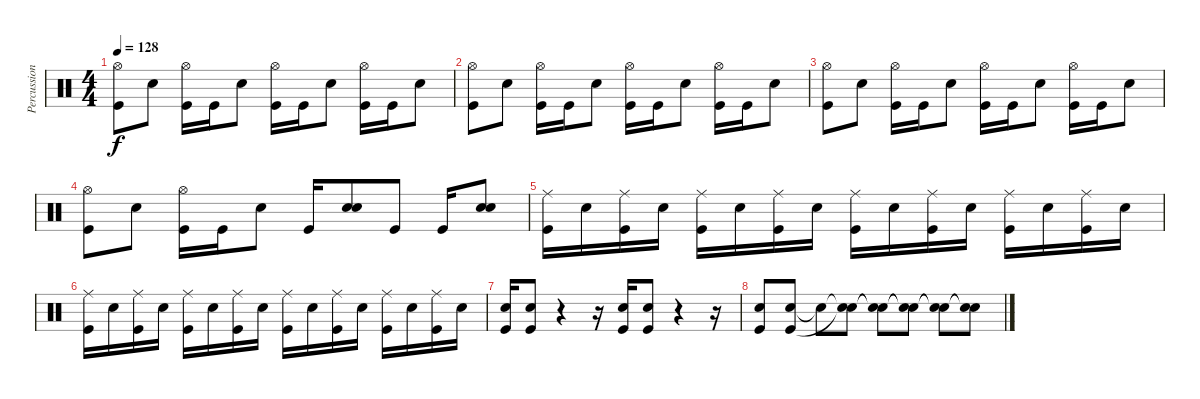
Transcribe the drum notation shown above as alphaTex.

\track ("Percussion" "Percussion") {instrument percussion}
\staff {score}
\articulation defaults
\ts (4 4)
\tempo 128
\clef neutral
\ks c
("Hi-Hat (open)" "Kick (hit)").8{dy f} "Electric Snare (hit)".8 ("Hi-Hat (open)" "Kick (hit)").16 "Kick (hit)".16 "Electric Snare (hit)".8 ("Hi-Hat (open)" "Kick (hit)").16 "Kick (hit)".16 "Electric Snare (hit)".8 ("Hi-Hat (open)" "Kick (hit)").16 "Kick (hit)".16 "Electric Snare (hit)".8 |
("Hi-Hat (open)" "Kick (hit)").8 "Electric Snare (hit)".8 ("Hi-Hat (open)" "Kick (hit)").16 "Kick (hit)".16 "Electric Snare (hit)".8 ("Hi-Hat (open)" "Kick (hit)").16 "Kick (hit)".16 "Electric Snare (hit)".8 ("Hi-Hat (open)" "Kick (hit)").16 "Kick (hit)".16 "Electric Snare (hit)".8 |
("Hi-Hat (open)" "Kick (hit)").8 "Electric Snare (hit)".8 ("Hi-Hat (open)" "Kick (hit)").16 "Kick (hit)".16 "Electric Snare (hit)".8 ("Hi-Hat (open)" "Kick (hit)").16 "Kick (hit)".16 "Electric Snare (hit)".8 ("Hi-Hat (open)" "Kick (hit)").16 "Kick (hit)".16 "Electric Snare (hit)".8 |
("Hi-Hat (open)" "Kick (hit)").8 "Electric Snare (hit)".8 ("Hi-Hat (open)" "Kick (hit)").16 "Kick (hit)".16 "Electric Snare (hit)".8 "Kick (hit)".16 ("Electric Snare (hit)" "Electric Snare (hit)").8 "Kick (hit)".8 "Kick (hit)".16 ("Electric Snare (hit)" "Electric Snare (hit)").8 |
("Ride (middle)" "Kick (hit)").16 "Electric Snare (hit)".16 ("Ride (middle)" "Kick (hit)").16 "Electric Snare (hit)".16 ("Ride (middle)" "Kick (hit)").16 "Electric Snare (hit)".16 ("Ride (middle)" "Kick (hit)").16 "Electric Snare (hit)".16 ("Ride (middle)" "Kick (hit)").16 "Electric Snare (hit)".16 ("Ride (middle)" "Kick (hit)").16 "Electric Snare (hit)".16 ("Ride (middle)" "Kick (hit)").16 "Electric Snare (hit)".16 ("Ride (middle)" "Kick (hit)").16 "Electric Snare (hit)".16 |
("Ride (middle)" "Kick (hit)").16 "Electric Snare (hit)".16 ("Ride (middle)" "Kick (hit)").16 "Electric Snare (hit)".16 ("Ride (middle)" "Kick (hit)").16 "Electric Snare (hit)".16 ("Ride (middle)" "Kick (hit)").16 "Electric Snare (hit)".16 ("Ride (middle)" "Kick (hit)").16 "Electric Snare (hit)".16 ("Ride (middle)" "Kick (hit)").16 "Electric Snare (hit)".16 ("Ride (middle)" "Kick (hit)").16 "Electric Snare (hit)".16 ("Ride (middle)" "Kick (hit)").16 "Electric Snare (hit)".16 |
("Electric Snare (hit)" "Kick (hit)").16 ("Electric Snare (hit)" "Kick (hit)").8 r.4 r.16 ("Electric Snare (hit)" "Kick (hit)").16 ("Electric Snare (hit)" "Kick (hit)").8 r.4 r.16 |
("Electric Snare (hit)" "Kick (hit)").8 ("Electric Snare (hit)" "Kick (hit)").8 "Snare (hit)"{t}.8 ("Snare (hit)"{t} "Snare (hit)"{t}).8 ("Snare (hit)"{t} "Snare (hit)"{t}).8 ("Snare (hit)"{t} "Snare (hit)"{t}).8 ("Snare (hit)"{t} "Snare (hit)"{t}).8 ("Snare (hit)"{t} "Snare (hit)"{t}).8
